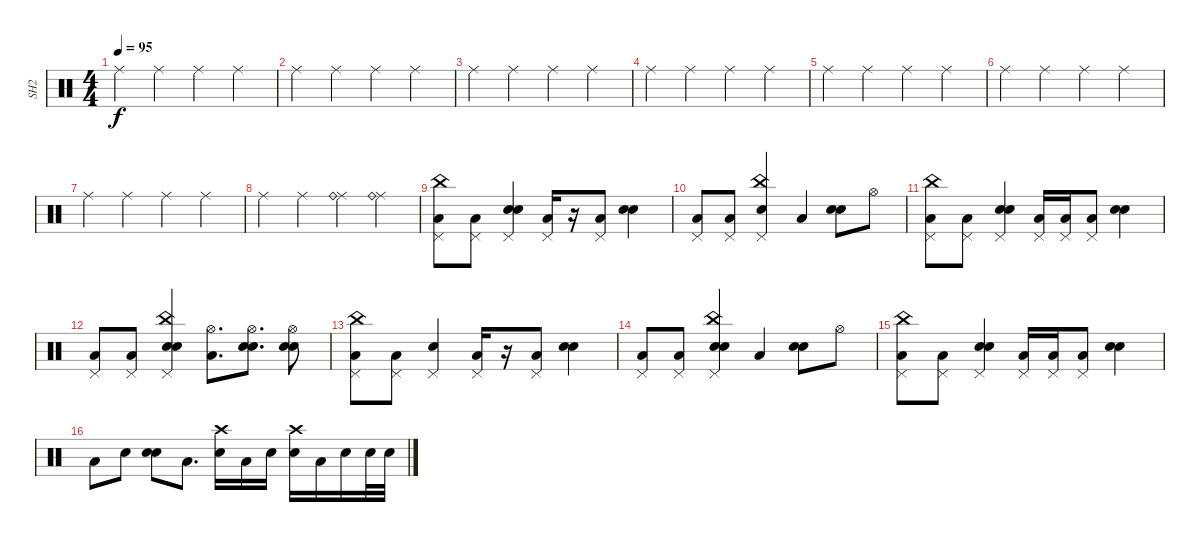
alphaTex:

\track ("SH2" "SH2") {instrument percussion}
\staff {score}
\articulation defaults
\ts (4 4)
\tempo 95
\clef neutral
\ks c "Ride (middle)".4{dy f} "Ride (middle)".4 "Ride (middle)".4 "Ride (middle)".4
|
"Ride (middle)".4 "Ride (middle)".4 "Ride (middle)".4 "Ride (middle)".4 |
"Ride (middle)".4 "Ride (middle)".4 "Ride (middle)".4 "Ride (middle)".4 |
"Ride (middle)".4 "Ride (middle)".4 "Ride (middle)".4 "Ride (middle)".4 |
"Ride (middle)".4 "Ride (middle)".4 "Ride (middle)".4 "Ride (middle)".4 |
"Ride (middle)".4 "Ride (middle)".4 "Ride (middle)".4 "Ride (middle)".4 |
"Ride (middle)".4 "Ride (middle)".4 "Ride (middle)".4 "Ride (middle)".4 |
"Ride (middle)".4 "Ride (middle)".4 ("Ride (middle)" "Ride (bell)").4 ("Ride (middle)" "Ride (bell)").4 |
("Low Floor Tom (hit)" "Pedal Hi-Hat (hit)" "China (hit)").8 ("Low Floor Tom (hit)" "Pedal Hi-Hat (hit)").8 ("Electric Snare (hit)" "Pedal Hi-Hat (hit)" "Snare (hit) 2").4 ("Low Floor Tom (hit)" "Pedal Hi-Hat (hit)").16 r.16 ("Low Floor Tom (hit)" "Pedal Hi-Hat (hit)").8 ("Electric Snare (hit)" "Snare (hit) 2").4 |
("Low Floor Tom (hit)" "Pedal Hi-Hat (hit)").8 ("Low Floor Tom (hit)" "Pedal Hi-Hat (hit)").8 ("Electric Snare (hit)" "Pedal Hi-Hat (hit)" "China (hit)").4 "Low Floor Tom (hit)".4 ("Electric Snare (hit)" "Snare (hit) 2").8 "Hi-Hat (open)".8 |
("Low Floor Tom (hit)" "Pedal Hi-Hat (hit)" "China (hit)").8 ("Low Floor Tom (hit)" "Pedal Hi-Hat (hit)").8 ("Electric Snare (hit)" "Pedal Hi-Hat (hit)" "Snare (hit) 2").4 ("Low Floor Tom (hit)" "Pedal Hi-Hat (hit)").16 ("Low Floor Tom (hit)" "Pedal Hi-Hat (hit)").16 ("Low Floor Tom (hit)" "Pedal Hi-Hat (hit)").8 ("Electric Snare (hit)" "Snare (hit) 2").4 |
("Low Floor Tom (hit)" "Pedal Hi-Hat (hit)").8 ("Low Floor Tom (hit)" "Pedal Hi-Hat (hit)").8 ("Electric Snare (hit)" "Pedal Hi-Hat (hit)" "Snare (hit) 2" "China (hit)").4 ("Low Floor Tom (hit)" "Hi-Hat (open)").8{d} ("Electric Snare (hit)" "Hi-Hat (open)" "Snare (hit) 2").8{d} ("Electric Snare (hit)" "Hi-Hat (open)" "Snare (hit) 2").8 |
("Low Floor Tom (hit)" "Pedal Hi-Hat (hit)" "China (hit)").8 ("Low Floor Tom (hit)" "Pedal Hi-Hat (hit)").8 ("Electric Snare (hit)" "Pedal Hi-Hat (hit)").4 ("Low Floor Tom (hit)" "Pedal Hi-Hat (hit)").16 r.16 ("Low Floor Tom (hit)" "Pedal Hi-Hat (hit)").8 ("Electric Snare (hit)" "Snare (hit) 2").4 |
("Low Floor Tom (hit)" "Pedal Hi-Hat (hit)").8 ("Low Floor Tom (hit)" "Pedal Hi-Hat (hit)").8 ("Electric Snare (hit)" "Pedal Hi-Hat (hit)" "Snare (hit) 2" "China (hit)").4 "Low Floor Tom (hit)".4 ("Electric Snare (hit)" "Snare (hit) 2").8 "Hi-Hat (open)".8 |
("Low Floor Tom (hit)" "Pedal Hi-Hat (hit)" "China (hit)").8 ("Low Floor Tom (hit)" "Pedal Hi-Hat (hit)").8 ("Electric Snare (hit)" "Pedal Hi-Hat (hit)" "Snare (hit) 2").4 ("Low Floor Tom (hit)" "Pedal Hi-Hat (hit)").16 ("Low Floor Tom (hit)" "Pedal Hi-Hat (hit)").16 ("Low Floor Tom (hit)" "Pedal Hi-Hat (hit)").8 ("Electric Snare (hit)" "Snare (hit) 2").4 |
"Low Floor Tom (hit)".8 "Snare (hit)"{x}.8 ("Electric Snare (hit)" "Snare (hit) 2").8 "Low Floor Tom (hit)".8{d volume 16} ("Electric Snare (hit)" "Crash high (hit)").16 "Low Floor Tom (hit)".16 "Electric Snare (hit)".16 ("Electric Snare (hit)" "Crash high (hit)").16 "Low Floor Tom (hit)".16 "Electric Snare (hit)".16 "Electric Snare (hit)".32 "Electric Snare (hit)".32
